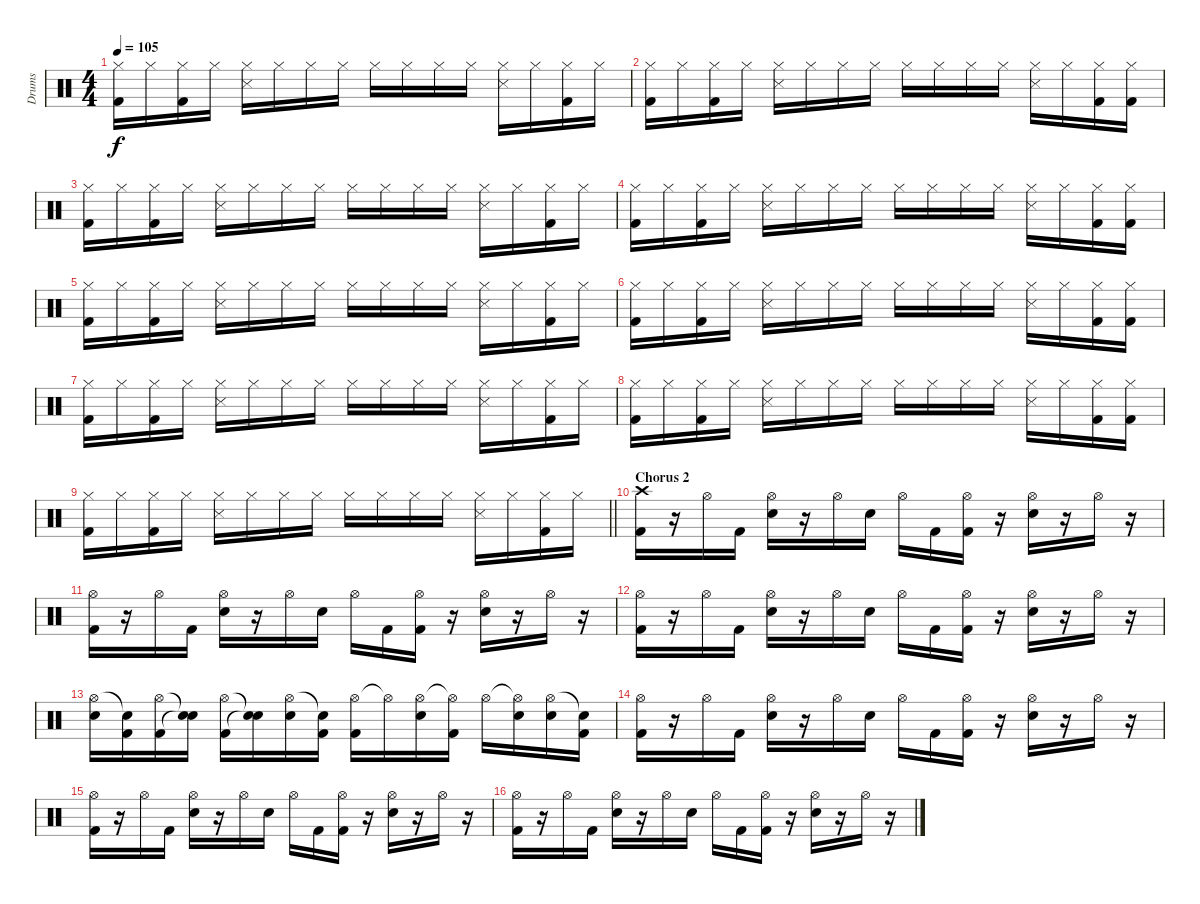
\track ("Drums" "Drums") {instrument percussion}
\staff {score}
\articulation defaults
\ts (4 4)
\tempo 105
\clef neutral
\ks c
("Hi-Hat (closed)" "Kick (hit) 2").16{dy f} "Hi-Hat (closed)".16 ("Hi-Hat (closed)" "Kick (hit) 2").16 "Hi-Hat (closed)".16 ("Hi-Hat (closed)" "Snare (side stick) 3").16 "Hi-Hat (closed)".16 "Hi-Hat (closed)".16 "Hi-Hat (closed)".16 "Hi-Hat (closed)".16 "Hi-Hat (closed)".16 "Hi-Hat (closed)".16 "Hi-Hat (closed)".16 ("Hi-Hat (closed)" "Snare (side stick) 3").16 "Hi-Hat (closed)".16 ("Hi-Hat (closed)" "Kick (hit) 2").16 "Hi-Hat (closed)".16 |
("Hi-Hat (closed)" "Kick (hit) 2").16 "Hi-Hat (closed)".16 ("Hi-Hat (closed)" "Kick (hit) 2").16 "Hi-Hat (closed)".16 ("Hi-Hat (closed)" "Snare (side stick) 3").16 "Hi-Hat (closed)".16 "Hi-Hat (closed)".16 "Hi-Hat (closed)".16 "Hi-Hat (closed)".16 "Hi-Hat (closed)".16 "Hi-Hat (closed)".16 "Hi-Hat (closed)".16 ("Hi-Hat (closed)" "Snare (side stick) 3").16 "Hi-Hat (closed)".16 ("Hi-Hat (closed)" "Kick (hit) 2").16 ("Hi-Hat (closed)" "Kick (hit) 2").16 |
("Hi-Hat (closed)" "Kick (hit) 2").16 "Hi-Hat (closed)".16 ("Hi-Hat (closed)" "Kick (hit) 2").16 "Hi-Hat (closed)".16 ("Hi-Hat (closed)" "Snare (side stick) 3").16 "Hi-Hat (closed)".16 "Hi-Hat (closed)".16 "Hi-Hat (closed)".16 "Hi-Hat (closed)".16 "Hi-Hat (closed)".16 "Hi-Hat (closed)".16 "Hi-Hat (closed)".16 ("Hi-Hat (closed)" "Snare (side stick) 3").16 "Hi-Hat (closed)".16 ("Hi-Hat (closed)" "Kick (hit) 2").16 "Hi-Hat (closed)".16 |
("Hi-Hat (closed)" "Kick (hit) 2").16 "Hi-Hat (closed)".16 ("Hi-Hat (closed)" "Kick (hit) 2").16 "Hi-Hat (closed)".16 ("Hi-Hat (closed)" "Snare (side stick) 3").16 "Hi-Hat (closed)".16 "Hi-Hat (closed)".16 "Hi-Hat (closed)".16 "Hi-Hat (closed)".16 "Hi-Hat (closed)".16 "Hi-Hat (closed)".16 "Hi-Hat (closed)".16 ("Hi-Hat (closed)" "Snare (side stick) 3").16 "Hi-Hat (closed)".16 ("Hi-Hat (closed)" "Kick (hit) 2").16 ("Hi-Hat (closed)" "Kick (hit) 2").16 |
("Hi-Hat (closed)" "Kick (hit) 2").16 "Hi-Hat (closed)".16 ("Hi-Hat (closed)" "Kick (hit) 2").16 "Hi-Hat (closed)".16 ("Hi-Hat (closed)" "Snare (side stick) 3").16 "Hi-Hat (closed)".16 "Hi-Hat (closed)".16 "Hi-Hat (closed)".16 "Hi-Hat (closed)".16 "Hi-Hat (closed)".16 "Hi-Hat (closed)".16 "Hi-Hat (closed)".16 ("Hi-Hat (closed)" "Snare (side stick) 3").16 "Hi-Hat (closed)".16 ("Hi-Hat (closed)" "Kick (hit) 2").16 "Hi-Hat (closed)".16 |
("Hi-Hat (closed)" "Kick (hit) 2").16 "Hi-Hat (closed)".16 ("Hi-Hat (closed)" "Kick (hit) 2").16 "Hi-Hat (closed)".16 ("Hi-Hat (closed)" "Snare (side stick) 3").16 "Hi-Hat (closed)".16 "Hi-Hat (closed)".16 "Hi-Hat (closed)".16 "Hi-Hat (closed)".16 "Hi-Hat (closed)".16 "Hi-Hat (closed)".16 "Hi-Hat (closed)".16 ("Hi-Hat (closed)" "Snare (side stick) 3").16 "Hi-Hat (closed)".16 ("Hi-Hat (closed)" "Kick (hit) 2").16 ("Hi-Hat (closed)" "Kick (hit) 2").16 |
("Hi-Hat (closed)" "Kick (hit) 2").16 "Hi-Hat (closed)".16 ("Hi-Hat (closed)" "Kick (hit) 2").16 "Hi-Hat (closed)".16 ("Hi-Hat (closed)" "Snare (side stick) 3").16 "Hi-Hat (closed)".16 "Hi-Hat (closed)".16 "Hi-Hat (closed)".16 "Hi-Hat (closed)".16 "Hi-Hat (closed)".16 "Hi-Hat (closed)".16 "Hi-Hat (closed)".16 ("Hi-Hat (closed)" "Snare (side stick) 3").16 "Hi-Hat (closed)".16 ("Hi-Hat (closed)" "Kick (hit) 2").16 "Hi-Hat (closed)".16 |
("Hi-Hat (closed)" "Kick (hit) 2").16 "Hi-Hat (closed)".16 ("Hi-Hat (closed)" "Kick (hit) 2").16 "Hi-Hat (closed)".16 ("Hi-Hat (closed)" "Snare (side stick) 3").16 "Hi-Hat (closed)".16 "Hi-Hat (closed)".16 "Hi-Hat (closed)".16 "Hi-Hat (closed)".16 "Hi-Hat (closed)".16 "Hi-Hat (closed)".16 "Hi-Hat (closed)".16 ("Hi-Hat (closed)" "Snare (side stick) 3").16 "Hi-Hat (closed)".16 ("Hi-Hat (closed)" "Kick (hit) 2").16 ("Hi-Hat (closed)" "Kick (hit) 2").16 |
\barLineRight lightlight
("Hi-Hat (closed)" "Kick (hit) 2").16 "Hi-Hat (closed)".16 ("Hi-Hat (closed)" "Kick (hit) 2").16 "Hi-Hat (closed)".16 ("Hi-Hat (closed)" "Snare (side stick) 3").16 "Hi-Hat (closed)".16 "Hi-Hat (closed)".16 "Hi-Hat (closed)".16 "Hi-Hat (closed)".16 "Hi-Hat (closed)".16 "Hi-Hat (closed)".16 "Hi-Hat (closed)".16 ("Hi-Hat (closed)" "Snare (side stick) 3").16 "Hi-Hat (closed)".16 ("Hi-Hat (closed)" "Kick (hit) 2").16 "Hi-Hat (closed)".16 |
\section ("" "Chorus 2")
("Crash high (hit)" "Kick (hit) 2").16 r.16 "Hi-Hat (open)".16 "Kick (hit) 2".16 ("Hi-Hat (open)" "Electric Snare (hit)").16 r.16 "Hi-Hat (open)".16 "Electric Snare (hit)".16 "Hi-Hat (open)".16 "Kick (hit) 2".16 ("Hi-Hat (open)" "Kick (hit) 2").16 r.16 ("Hi-Hat (open)" "Electric Snare (hit)").16 r.16 "Hi-Hat (open)".16 r.16 |
("Hi-Hat (open)" "Kick (hit) 2").16 r.16 "Hi-Hat (open)".16 "Kick (hit) 2".16 ("Hi-Hat (open)" "Electric Snare (hit)").16 r.16 "Hi-Hat (open)".16 "Electric Snare (hit)".16 "Hi-Hat (open)".16 "Kick (hit) 2".16 ("Hi-Hat (open)" "Kick (hit) 2").16 r.16 ("Hi-Hat (open)" "Electric Snare (hit)").16 r.16 "Hi-Hat (open)".16 r.16 |
("Hi-Hat (open)" "Kick (hit) 2").16 r.16 "Hi-Hat (open)".16 "Kick (hit) 2".16 ("Hi-Hat (open)" "Electric Snare (hit)").16 r.16 "Hi-Hat (open)".16 "Electric Snare (hit)".16 "Hi-Hat (open)".16 "Kick (hit) 2".16 ("Hi-Hat (open)" "Kick (hit) 2").16 r.16 ("Hi-Hat (open)" "Electric Snare (hit)").16 r.16 "Hi-Hat (open)".16 r.16 |
("Hi-Hat (open)" "Electric Snare (hit)").16 ("Snare (hit)"{t} "Kick (hit) 2").16 ("Hi-Hat (open)" "Kick (hit) 2").16 ("Snare (hit)"{t} "Snare (hit)"{t}).16 ("Hi-Hat (open)" "Kick (hit) 2").16 ("Snare (hit)"{t} "Snare (hit)"{t}).16 ("Hi-Hat (open)" "Electric Snare (hit)").16 ("Snare (hit)"{t} "Kick (hit) 2").16 ("Hi-Hat (open)" "Kick (hit) 2").16 "Hi-Hat (open)"{t}.16 ("Hi-Hat (open)" "Electric Snare (hit)").16 ("Hi-Hat (open)"{t} "Kick (hit) 2").16 "Hi-Hat (open)".16 ("Hi-Hat (open)"{t} "Electric Snare (hit)").16 ("Hi-Hat (open)" "Electric Snare (hit)").16 ("Snare (hit)"{t} "Kick (hit) 2").16 |
("Hi-Hat (open)" "Kick (hit) 2").16 r.16 "Hi-Hat (open)".16 "Kick (hit) 2".16 ("Hi-Hat (open)" "Electric Snare (hit)").16 r.16 "Hi-Hat (open)".16 "Electric Snare (hit)".16 "Hi-Hat (open)".16 "Kick (hit) 2".16 ("Hi-Hat (open)" "Kick (hit) 2").16 r.16 ("Hi-Hat (open)" "Electric Snare (hit)").16 r.16 "Hi-Hat (open)".16 r.16 |
("Hi-Hat (open)" "Kick (hit) 2").16 r.16 "Hi-Hat (open)".16 "Kick (hit) 2".16 ("Hi-Hat (open)" "Electric Snare (hit)").16 r.16 "Hi-Hat (open)".16 "Electric Snare (hit)".16 "Hi-Hat (open)".16 "Kick (hit) 2".16 ("Hi-Hat (open)" "Kick (hit) 2").16 r.16 ("Hi-Hat (open)" "Electric Snare (hit)").16 r.16 "Hi-Hat (open)".16 r.16 |
("Hi-Hat (open)" "Kick (hit) 2").16 r.16 "Hi-Hat (open)".16 "Kick (hit) 2".16 ("Hi-Hat (open)" "Electric Snare (hit)").16 r.16 "Hi-Hat (open)".16 "Electric Snare (hit)".16 "Hi-Hat (open)".16 "Kick (hit) 2".16 ("Hi-Hat (open)" "Kick (hit) 2").16 r.16 ("Hi-Hat (open)" "Electric Snare (hit)").16 r.16 "Hi-Hat (open)".16 r.16
